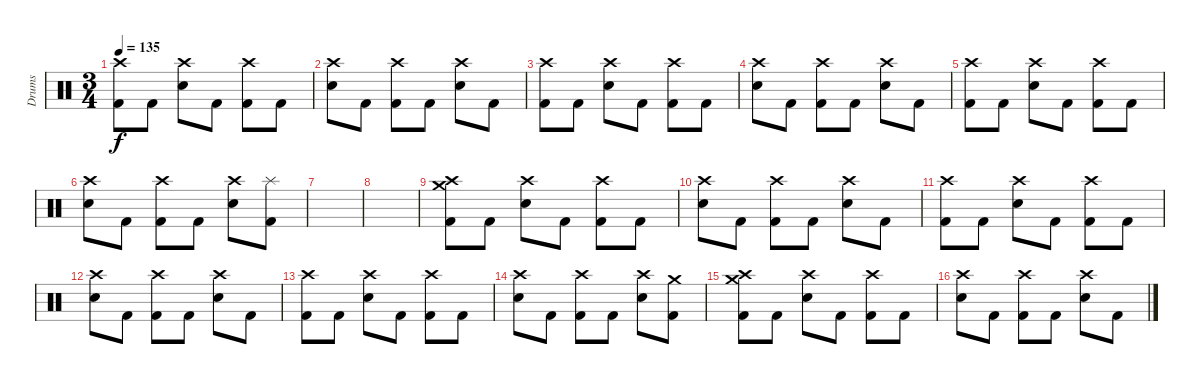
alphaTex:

\track ("Drums" "Drums") {instrument percussion}
\staff {score}
\articulation defaults
\ts (3 4)
\tempo 135
\clef neutral
\ks c
("Crash high (hit)" "Kick (hit) 2").8{dy f} "Kick (hit) 2".8 ("Crash high (hit)" "Snare (hit) 2").8 "Kick (hit) 2".8 ("Crash high (hit)" "Kick (hit) 2").8 "Kick (hit) 2".8 |
("Crash high (hit)" "Snare (hit) 2").8 "Kick (hit) 2".8 ("Crash high (hit)" "Kick (hit) 2").8 "Kick (hit) 2".8 ("Crash high (hit)" "Snare (hit) 2").8 "Kick (hit) 2".8 |
("Crash high (hit)" "Kick (hit) 2").8 "Kick (hit) 2".8 ("Crash high (hit)" "Snare (hit) 2").8 "Kick (hit) 2".8 ("Crash high (hit)" "Kick (hit) 2").8 "Kick (hit) 2".8 |
("Crash high (hit)" "Snare (hit) 2").8 "Kick (hit) 2".8 ("Crash high (hit)" "Kick (hit) 2").8 "Kick (hit) 2".8 ("Crash high (hit)" "Snare (hit) 2").8 "Kick (hit) 2".8 |
("Crash high (hit)" "Kick (hit) 2").8 "Kick (hit) 2".8 ("Crash high (hit)" "Snare (hit) 2").8 "Kick (hit) 2".8 ("Crash high (hit)" "Kick (hit) 2").8 "Kick (hit) 2".8 |
("Crash high (hit)" "Snare (hit) 2").8 "Kick (hit) 2".8 ("Crash high (hit)" "Kick (hit) 2").8 "Kick (hit) 2".8 ("Crash high (hit)" "Snare (hit) 2").8 ("Splash (hit)" "Kick (hit) 2").8 |
|
|
("Crash high (hit)" "Crash medium (hit)" "Kick (hit) 2").8 "Kick (hit) 2".8 ("Crash high (hit)" "Snare (hit) 2").8 "Kick (hit) 2".8 ("Crash high (hit)" "Kick (hit) 2").8 "Kick (hit) 2".8 |
("Crash high (hit)" "Snare (hit) 2").8 "Kick (hit) 2".8 ("Crash high (hit)" "Kick (hit) 2").8 "Kick (hit) 2".8 ("Crash high (hit)" "Snare (hit) 2").8 "Kick (hit) 2".8 |
("Crash high (hit)" "Kick (hit) 2").8 "Kick (hit) 2".8 ("Crash high (hit)" "Snare (hit) 2").8 "Kick (hit) 2".8 ("Crash high (hit)" "Kick (hit) 2").8 "Kick (hit) 2".8 |
("Crash high (hit)" "Snare (hit) 2").8 "Kick (hit) 2".8 ("Crash high (hit)" "Kick (hit) 2").8 "Kick (hit) 2".8 ("Crash high (hit)" "Snare (hit) 2").8 "Kick (hit) 2".8 |
("Crash high (hit)" "Kick (hit) 2").8 "Kick (hit) 2".8 ("Crash high (hit)" "Snare (hit) 2").8 "Kick (hit) 2".8 ("Crash high (hit)" "Kick (hit) 2").8 "Kick (hit) 2".8 |
("Crash high (hit)" "Snare (hit) 2").8 "Kick (hit) 2".8 ("Crash high (hit)" "Kick (hit) 2").8 "Kick (hit) 2".8 ("Crash high (hit)" "Snare (hit) 2").8 ("Crash medium (hit)" "Kick (hit) 2").8 |
("Crash high (hit)" "Crash medium (hit)" "Kick (hit) 2").8 "Kick (hit) 2".8 ("Crash high (hit)" "Snare (hit) 2").8 "Kick (hit) 2".8 ("Crash high (hit)" "Kick (hit) 2").8 "Kick (hit) 2".8 |
("Crash high (hit)" "Snare (hit) 2").8 "Kick (hit) 2".8 ("Crash high (hit)" "Kick (hit) 2").8 "Kick (hit) 2".8 ("Crash high (hit)" "Snare (hit) 2").8 "Kick (hit) 2".8
